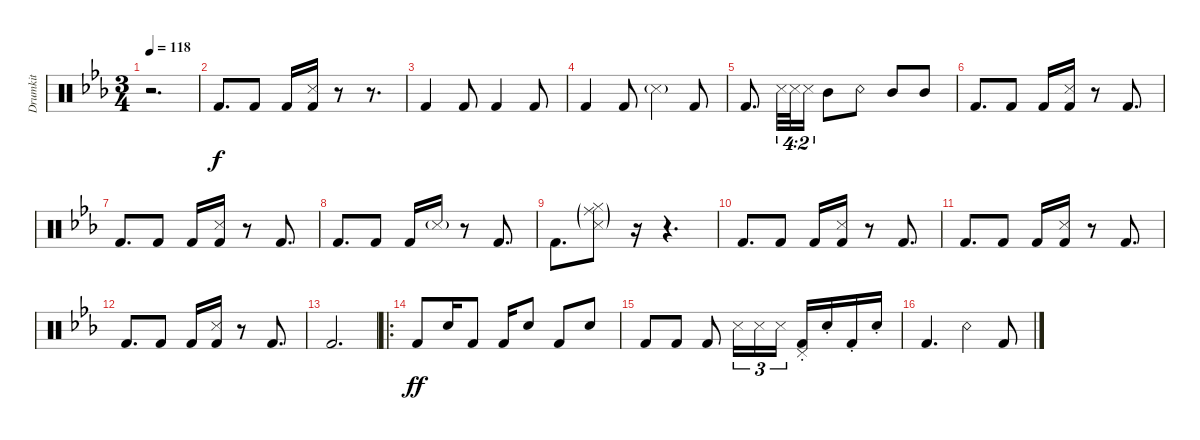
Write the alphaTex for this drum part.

\defaultSystemsLayout 4
\bracketExtendMode groupsimilarinstruments
\otherSystemsTrackNameOrientation horizontal
\track ("Drumkit" "Drumkit") {instrument percussion}
\staff {score}
\articulation defaults
\ts (3 4)
\scale
0.817611
\tempo 118
\accidentals auto
\clef neutral
\ottava regular
\simile none
\ks cminor
r.2{d dy f beam Down} |
\scale
1.18239 "Kick (hit) 2"{acc forcenatural}.8{d beam Up} "Kick (hit) 2"{acc forcenatural}.8{beam Up} "Kick (hit) 2"{acc forcenatural}.16{beam Up} ("Kick (hit) 2"{acc forcenatural} "Snare (side stick) 3"{acc forcenatural}).16{beam Up} r.8{beam Up} r.8{d beam Up} |
\scale
1.11807 "Kick (hit) 2"{acc forcenatural}.4{beam Up} "Kick (hit) 2"{acc forcenatural}.8{beam Up} "Kick (hit) 2"{acc forcenatural}.4{beam Up} "Kick (hit) 2"{acc forcenatural}.8{beam Up} |
\scale
0.881925 "Kick (hit) 2"{acc forcenatural}.4{beam Up} "Kick (hit) 2"{acc forcenatural}.8{beam Up} "Snare (side stick) 3"{g acc forcenatural}.4{beam Down} "Kick (hit) 2"{acc forcenatural}.8{beam Up} |
\scale
1.04793 "Kick (hit) 2"{acc forcenatural}.8{d beam Up} "Snare (side stick) 3"{acc forcenatural}.32{tu (4 2) beam Down} "Snare (side stick) 3"{acc forcenatural}.32{tu (4 2) beam Down} "Snare (side stick) 3"{acc forcenatural}.16{tu (4 2) beam Down} "Mid Tom (hit)"{acc forcenatural}.8{beam Down} "Snare (rim shot)"{acc forcenatural}.8{beam Down} "Mid Tom (hit)"{acc forcenatural}.8{beam Up} "Mid Tom (hit)"{acc forcenatural}.8{beam Up} |
\scale
0.952067 "Kick (hit) 2"{acc forcenatural}.8{d beam Up} "Kick (hit) 2"{acc forcenatural}.8{beam Up} "Kick (hit) 2"{acc forcenatural}.16{beam Up} ("Kick (hit) 2"{acc forcenatural} "Snare (side stick) 3"{acc forcenatural}).16{beam Up} r.8{beam Up} "Kick (hit) 2"{acc forcenatural}.8{d beam Up} |
"Kick (hit) 2"{acc forcenatural}.8{d beam Up} "Kick (hit) 2"{acc forcenatural}.8{beam Up} "Kick (hit) 2"{acc forcenatural}.16{beam Up} ("Kick (hit) 2"{acc forcenatural} "Snare (side stick) 3"{acc forcenatural}).16{beam Up} r.8{beam Up} "Kick (hit) 2"{acc forcenatural}.8{d beam Up} |
\scale
1.1063 "Kick (hit) 2"{acc forcenatural}.8{d beam Up} "Kick (hit) 2"{acc forcenatural}.8{beam Up} "Kick (hit) 2"{acc forcenatural}.16{beam Up} "Snare (side stick) 3"{g acc forcenatural}.16{beam Up} r.8{beam Up} "Kick (hit) 2"{acc forcenatural}.8{d beam Up} |
\scale
0.893698 "Kick (hit) 2"{acc forcenatural}.8{d beam Down} ("Snare (side stick) 3"{g acc forcenatural} "Ride (middle)"{g acc forcenatural} "Hi-Hat (closed)"{g acc forcenatural}).8{beam Down} r.16{beam Down} r.4{d beam Down} |
\scale
0.973735 "Kick (hit) 2"{acc forcenatural}.8{d beam Up} "Kick (hit) 2"{acc forcenatural}.8{beam Up} "Kick (hit) 2"{acc forcenatural}.16{beam Up} ("Kick (hit) 2"{acc forcenatural} "Snare (side stick) 3"{acc forcenatural}).16{beam Up} r.8{beam Up} "Kick (hit) 2"{acc forcenatural}.8{d beam Up} |
\scale
1.02626 "Kick (hit) 2"{acc forcenatural}.8{d beam Up} "Kick (hit) 2"{acc forcenatural}.8{beam Up} "Kick (hit) 2"{acc forcenatural}.16{beam Up} ("Kick (hit) 2"{acc forcenatural} "Snare (side stick) 3"{acc forcenatural}).16{beam Up} r.8{beam Up} "Kick (hit) 2"{acc forcenatural}.8{d beam Up} |
\scale
1.12946 "Kick (hit) 2"{acc forcenatural}.8{d beam Up} "Kick (hit) 2"{acc forcenatural}.8{beam Up} "Kick (hit) 2"{acc forcenatural}.16{beam Up} ("Kick (hit) 2"{acc forcenatural} "Snare (side stick) 3"{acc forcenatural}).16{beam Up} r.8{beam Up} "Kick (hit) 2"{acc forcenatural}.8{d beam Up} |
\scale
0.870536 "Kick (hit) 2"{acc forcenatural}.2{d beam Up} |
\ro
\scale
1.00176 "Kick (hit) 2"{acc forcenatural}.8{dy ff beam Up} "Snare (hit) 2"{acc forcenatural}.16{beam Up} "Kick (hit) 2"{acc forcenatural}.8{beam Up} "Kick (hit) 2"{acc forcenatural}.16{beam Up} "Snare (hit) 2"{acc forcenatural}.8{beam Up} "Kick (hit) 2"{acc forcenatural}.8{beam Up} "Snare (hit) 2"{acc forcenatural}.8{beam Up} |
\scale
0.998243 "Kick (hit) 2"{acc forcenatural}.8{beam Up} "Kick (hit) 2"{acc forcenatural}.8{beam Up} "Kick (hit) 2"{acc forcenatural}.8{beam Up} "Snare (side stick) 3"{acc forcenatural}.16{tu (3 2) beam Down} "Snare (side stick) 3"{acc forcenatural}.16{tu (3 2) beam Down} "Snare (side stick) 3"{acc forcenatural}.16{tu (3 2) beam Down} ("Pedal Hi-Hat (hit)"{st acc forcenatural} "Kick (hit) 2"{st acc forcenatural}).16{beam Up} "Snare (hit) 2"{st acc forcenatural}.16{beam Up} "Kick (hit) 2"{st acc forcenatural}.16{beam Up} "Snare (hit) 2"{st acc forcenatural}.16{beam Up} |
\scale
0.597981 "Kick (hit) 2"{acc forcenatural}.4{d beam Up} "Snare (rim shot)"{acc forcenatural}.4{beam Down} "Kick (hit) 2"{acc forcenatural}.8{beam Up}
